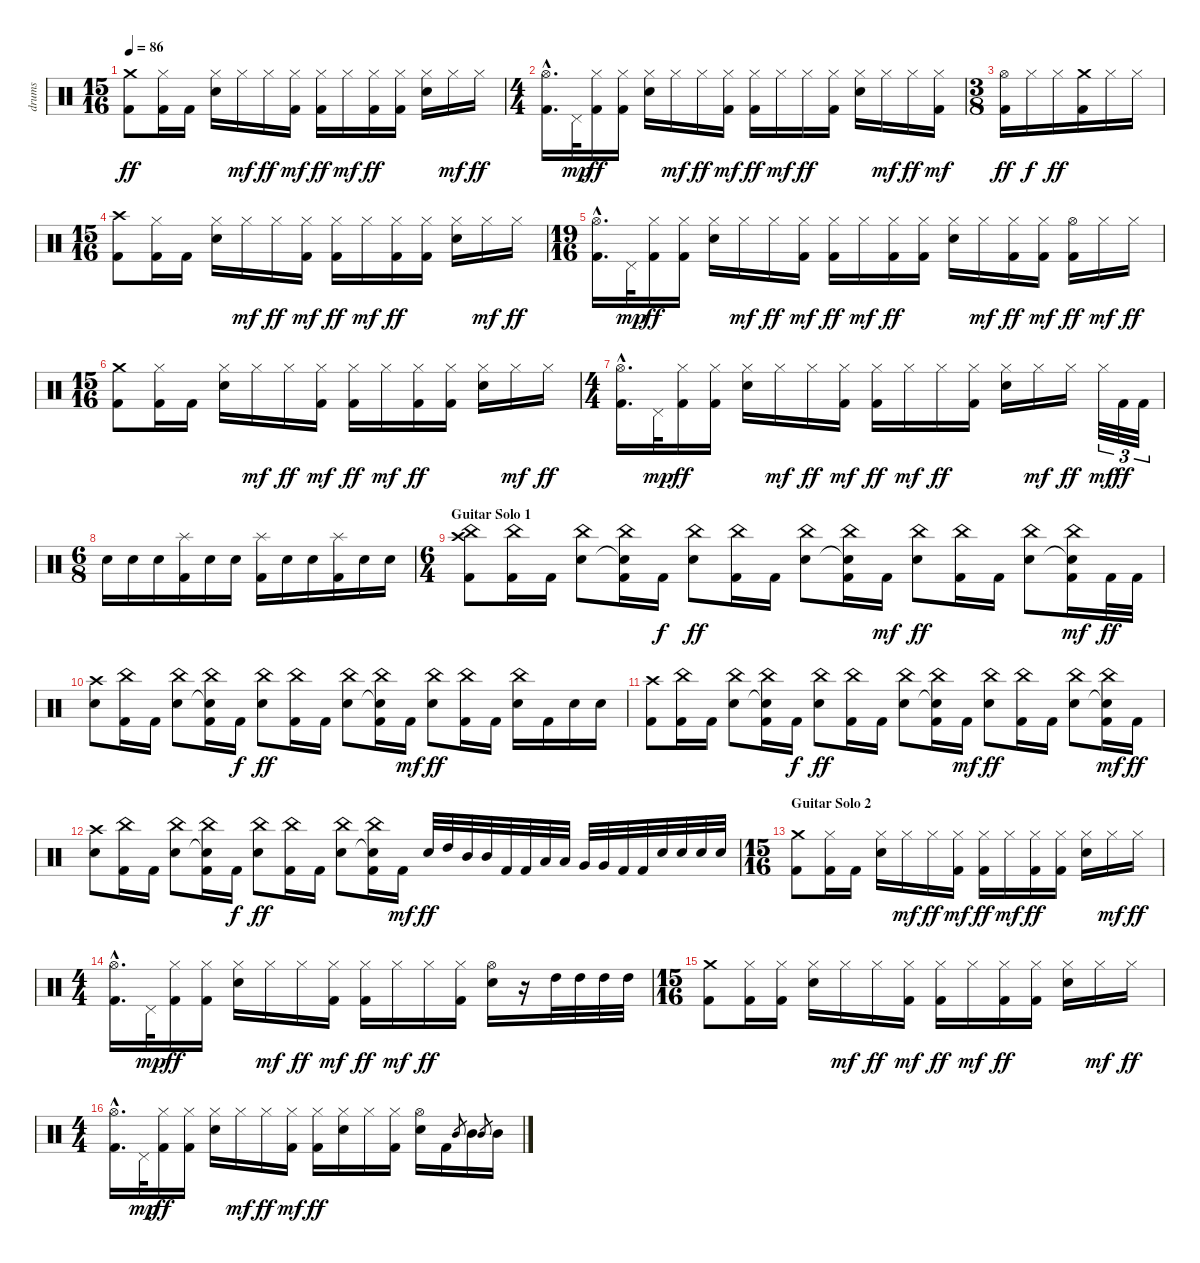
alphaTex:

\track ("drums" "drums") {instrument percussion}
\staff {score}
\articulation defaults
\ts (15 16)
\tempo 86
\clef neutral
\ks c
("Crash medium (hit)" "Kick (hit) 2").8{dy ff} ("Hi-Hat (closed)" "Kick (hit) 2").16 "Kick (hit) 2".16 ("Hi-Hat (closed)" "Snare (hit) 2").16 "Hi-Hat (closed)".16{dy mf} "Hi-Hat (closed)".16{dy ff} ("Hi-Hat (closed)" "Kick (hit) 2").16{dy mf} ("Hi-Hat (closed)" "Kick (hit) 2").16{dy ff} "Hi-Hat (closed)".16{dy mf} ("Hi-Hat (closed)" "Kick (hit) 2").16{dy ff} ("Hi-Hat (closed)" "Kick (hit) 2").16 ("Hi-Hat (closed)" "Snare (hit) 2").16 "Hi-Hat (closed)".16{dy mf} "Hi-Hat (closed)".16{dy ff} |
\ts (4 4)
("Hi-Hat (open)"{hac} "Kick (hit) 2"{hac}).16{d} "Pedal Hi-Hat (hit)".32{dy mp} ("Hi-Hat (closed)" "Kick (hit) 2").16{dy ff} ("Hi-Hat (closed)" "Kick (hit) 2").16 ("Hi-Hat (closed)" "Snare (hit) 2").16 "Hi-Hat (closed)".16{dy mf} "Hi-Hat (closed)".16{dy ff} ("Hi-Hat (closed)" "Kick (hit) 2").16{dy mf} ("Hi-Hat (closed)" "Kick (hit) 2").16{dy ff} "Hi-Hat (closed)".16{dy mf} "Hi-Hat (closed)".16{dy ff} ("Hi-Hat (closed)" "Kick (hit) 2").16 ("Hi-Hat (closed)" "Snare (hit) 2").16 "Hi-Hat (closed)".16{dy mf} "Hi-Hat (closed)".16{dy ff} ("Hi-Hat (closed)" "Kick (hit) 2").16{dy mf} |
\ts (3 8)
("Hi-Hat (open)" "Kick (hit) 2").16{dy ff} "Hi-Hat (closed)".16{dy f} "Hi-Hat (closed)".16{dy ff} ("Crash medium (hit)" "Kick (hit) 2").16 "Hi-Hat (closed)".16 "Hi-Hat (closed)".16 |
\ts (15 16)
("Crash high (hit)" "Kick (hit) 2").8 ("Hi-Hat (closed)" "Kick (hit) 2").16 "Kick (hit) 2".16 ("Hi-Hat (closed)" "Snare (hit) 2").16 "Hi-Hat (closed)".16{dy mf} "Hi-Hat (closed)".16{dy ff} ("Hi-Hat (closed)" "Kick (hit) 2").16{dy mf} ("Hi-Hat (closed)" "Kick (hit) 2").16{dy ff} "Hi-Hat (closed)".16{dy mf} ("Hi-Hat (closed)" "Kick (hit) 2").16{dy ff} ("Hi-Hat (closed)" "Kick (hit) 2").16 ("Hi-Hat (closed)" "Snare (hit) 2").16 "Hi-Hat (closed)".16{dy mf} "Hi-Hat (closed)".16{dy ff} |
\ts (19 16)
("Hi-Hat (open)"{hac} "Kick (hit) 2"{hac}).16{d} "Pedal Hi-Hat (hit)".32{dy mp} ("Hi-Hat (closed)" "Kick (hit) 2").16{dy ff} ("Hi-Hat (closed)" "Kick (hit) 2").16 ("Hi-Hat (closed)" "Snare (hit) 2").16 "Hi-Hat (closed)".16{dy mf} "Hi-Hat (closed)".16{dy ff} ("Hi-Hat (closed)" "Kick (hit) 2").16{dy mf} ("Hi-Hat (closed)" "Kick (hit) 2").16{dy ff} "Hi-Hat (closed)".16{dy mf} ("Hi-Hat (closed)" "Kick (hit) 2").16{dy ff} ("Hi-Hat (closed)" "Kick (hit) 2").16 ("Hi-Hat (closed)" "Snare (hit) 2").16 "Hi-Hat (closed)".16{dy mf} ("Hi-Hat (closed)" "Kick (hit) 2").16{dy ff} ("Hi-Hat (closed)" "Kick (hit) 2").16{dy mf} ("Hi-Hat (open)" "Kick (hit) 2").16{dy ff} "Hi-Hat (closed)".16{dy mf} "Hi-Hat (closed)".16{dy ff} |
\ts (15 16)
("Crash medium (hit)" "Kick (hit) 2").8 ("Hi-Hat (closed)" "Kick (hit) 2").16 "Kick (hit) 2".16 ("Hi-Hat (closed)" "Snare (hit) 2").16 "Hi-Hat (closed)".16{dy mf} "Hi-Hat (closed)".16{dy ff} ("Hi-Hat (closed)" "Kick (hit) 2").16{dy mf} ("Hi-Hat (closed)" "Kick (hit) 2").16{dy ff} "Hi-Hat (closed)".16{dy mf} ("Hi-Hat (closed)" "Kick (hit) 2").16{dy ff} ("Hi-Hat (closed)" "Kick (hit) 2").16 ("Hi-Hat (closed)" "Snare (hit) 2").16 "Hi-Hat (closed)".16{dy mf} "Hi-Hat (closed)".16{dy ff} |
\ts (4 4)
("Hi-Hat (open)"{hac} "Kick (hit) 2"{hac}).16{d} "Pedal Hi-Hat (hit)".32{dy mp} ("Hi-Hat (closed)" "Kick (hit) 2").16{dy ff} ("Hi-Hat (closed)" "Kick (hit) 2").16 ("Hi-Hat (closed)" "Snare (hit) 2").16 "Hi-Hat (closed)".16{dy mf} "Hi-Hat (closed)".16{dy ff} ("Hi-Hat (closed)" "Kick (hit) 2").16{dy mf} ("Hi-Hat (closed)" "Kick (hit) 2").16{dy ff} "Hi-Hat (closed)".16{dy mf} "Hi-Hat (closed)".16{dy ff} ("Hi-Hat (closed)" "Kick (hit) 2").16 ("Hi-Hat (closed)" "Snare (hit) 2").16 "Hi-Hat (closed)".16{dy mf} "Hi-Hat (closed)".16{dy ff} "Hi-Hat (closed)".32{tu (3 2) dy mf} "Kick (hit) 2".32{tu (3 2) dy ff} "Kick (hit) 2".32{tu (3 2)} |
\ts (6 8)
"Snare (hit) 2".16 "Snare (hit) 2".16 "Snare (hit) 2".16 ("Splash (hit)" "Kick (hit) 2").16 "Snare (hit) 2".16 "Snare (hit) 2".16 ("Splash (hit)" "Kick (hit) 2").16 "Snare (hit) 2".16 "Snare (hit) 2".16 ("Splash (hit)" "Kick (hit) 2").16 "Snare (hit) 2".16 "Snare (hit) 2".16 |
\ts (6 4)
\section ("" "Guitar Solo 1")
("China (hit)" "Crash high (hit)" "Kick (hit) 2").8 ("China (hit)" "Kick (hit) 2").16 "Kick (hit) 2".16 ("China (hit)" "Snare (hit) 2").8 ("China (hit)" "Snare (hit)"{t} "Kick (hit) 2").16 "Kick (hit) 2".16{dy f} ("China (hit)" "Snare (hit) 2").8{dy ff} ("China (hit)" "Kick (hit) 2").16 "Kick (hit) 2".16 ("China (hit)" "Snare (hit) 2").8 ("China (hit)" "Snare (hit)"{t} "Kick (hit) 2").16 "Kick (hit) 2".16{dy mf} ("China (hit)" "Snare (hit) 2").8{dy ff} ("China (hit)" "Kick (hit) 2").16 "Kick (hit) 2".16 ("China (hit)" "Snare (hit) 2").8 ("China (hit)" "Snare (hit)"{t} "Kick (hit) 2").16{dy mf} "Kick (hit) 2".32{dy ff} "Kick (hit) 2".32 |
("Crash high (hit)" "Snare (hit) 2").8 ("China (hit)" "Kick (hit) 2").16 "Kick (hit) 2".16 ("China (hit)" "Snare (hit) 2").8 ("China (hit)" "Snare (hit)"{t} "Kick (hit) 2").16 "Kick (hit) 2".16{dy f} ("China (hit)" "Snare (hit) 2").8{dy ff} ("China (hit)" "Kick (hit) 2").16 "Kick (hit) 2".16 ("China (hit)" "Snare (hit) 2").8 ("China (hit)" "Snare (hit)"{t} "Kick (hit) 2").16 "Kick (hit) 2".16{dy mf} ("China (hit)" "Snare (hit) 2").8{dy ff} ("China (hit)" "Kick (hit) 2").16 "Kick (hit) 2".16 ("China (hit)" "Snare (hit) 2").16 "Kick (hit) 2".16 "Snare (hit) 2".16 "Snare (hit) 2".16 |
("Crash high (hit)" "Kick (hit) 2").8 ("China (hit)" "Kick (hit) 2").16 "Kick (hit) 2".16 ("China (hit)" "Snare (hit) 2").8 ("China (hit)" "Snare (hit)"{t} "Kick (hit) 2").16 "Kick (hit) 2".16{dy f} ("China (hit)" "Snare (hit) 2").8{dy ff} ("China (hit)" "Kick (hit) 2").16 "Kick (hit) 2".16 ("China (hit)" "Snare (hit) 2").8 ("China (hit)" "Snare (hit)"{t} "Kick (hit) 2").16 "Kick (hit) 2".16{dy mf} ("China (hit)" "Snare (hit) 2").8{dy ff} ("China (hit)" "Kick (hit) 2").16 "Kick (hit) 2".16 ("China (hit)" "Snare (hit) 2").8 ("China (hit)" "Snare (hit)"{t} "Kick (hit) 2").16{dy mf} "Kick (hit) 2".16{dy ff} |
("Crash high (hit)" "Snare (hit) 2").8 ("China (hit)" "Kick (hit) 2").16 "Kick (hit) 2".16 ("China (hit)" "Snare (hit) 2").8 ("China (hit)" "Snare (hit)"{t} "Kick (hit) 2").16 "Kick (hit) 2".16{dy f} ("China (hit)" "Snare (hit) 2").8{dy ff} ("China (hit)" "Kick (hit) 2").16 "Kick (hit) 2".16 ("China (hit)" "Snare (hit) 2").8 ("China (hit)" "Snare (hit)"{t} "Kick (hit) 2").16 "Kick (hit) 2".16{dy mf} "Snare (hit) 2".32{dy ff} "High Tom (hit)".32 "Mid Tom (hit)".32 "Mid Tom (hit)".32 "Kick (hit) 2".32 "Kick (hit) 2".32 "Low Tom (hit)".32 "Low Tom (hit)".32 "Very Low Tom (hit)".32 "Very Low Tom (hit)".32 "Kick (hit) 2".32 "Kick (hit) 2".32 "Snare (hit) 2".32 "Snare (hit) 2".32 "Snare (hit) 2".32 "Snare (hit) 2".32 |
\ts (15 16)
\section ("" "Guitar Solo 2")
("Crash medium (hit)" "Kick (hit) 2").8 ("Hi-Hat (closed)" "Kick (hit) 2").16 "Kick (hit) 2".16 ("Hi-Hat (closed)" "Snare (hit) 2").16 "Hi-Hat (closed)".16{dy mf} "Hi-Hat (closed)".16{dy ff} ("Hi-Hat (closed)" "Kick (hit) 2").16{dy mf} ("Hi-Hat (closed)" "Kick (hit) 2").16{dy ff} "Hi-Hat (closed)".16{dy mf} ("Hi-Hat (closed)" "Kick (hit) 2").16{dy ff} ("Hi-Hat (closed)" "Kick (hit) 2").16 ("Hi-Hat (closed)" "Snare (hit) 2").16 "Hi-Hat (closed)".16{dy mf} "Hi-Hat (closed)".16{dy ff} |
\ts (4 4)
("Hi-Hat (open)"{hac} "Kick (hit) 2"{hac}).16{d} "Pedal Hi-Hat (hit)".32{dy mp} ("Hi-Hat (closed)" "Kick (hit) 2").16{dy ff} ("Hi-Hat (closed)" "Kick (hit) 2").16 ("Hi-Hat (closed)" "Snare (hit) 2").16 "Hi-Hat (closed)".16{dy mf} "Hi-Hat (closed)".16{dy ff} ("Hi-Hat (closed)" "Kick (hit) 2").16{dy mf} ("Hi-Hat (closed)" "Kick (hit) 2").16{dy ff} "Hi-Hat (closed)".16{dy mf} "Hi-Hat (closed)".16{dy ff} ("Hi-Hat (closed)" "Kick (hit) 2").16 ("Hi-Hat (open)" "Snare (hit) 2").16 r.16 "High Tom (hit)".32 "High Tom (hit)".32 "High Tom (hit)".32 "High Tom (hit)".32 |
\ts (15 16)
("Crash medium (hit)" "Kick (hit) 2").8 ("Hi-Hat (closed)" "Kick (hit) 2").16 ("Hi-Hat (closed)" "Kick (hit) 2").16 ("Hi-Hat (closed)" "Snare (hit) 2").16 "Hi-Hat (closed)".16{dy mf} "Hi-Hat (closed)".16{dy ff} ("Hi-Hat (closed)" "Kick (hit) 2").16{dy mf} ("Hi-Hat (closed)" "Kick (hit) 2").16{dy ff} "Hi-Hat (closed)".16{dy mf} ("Hi-Hat (closed)" "Kick (hit) 2").16{dy ff} ("Hi-Hat (closed)" "Kick (hit) 2").16 ("Hi-Hat (closed)" "Snare (hit) 2").16 "Hi-Hat (closed)".16{dy mf} "Hi-Hat (closed)".16{dy ff} |
\ts (4 4)
("Hi-Hat (open)"{hac} "Kick (hit) 2"{hac}).16{d} "Pedal Hi-Hat (hit)".32{dy mp} ("Hi-Hat (closed)" "Kick (hit) 2").16{dy ff} ("Hi-Hat (closed)" "Kick (hit) 2").16 ("Hi-Hat (closed)" "Snare (hit) 2").16 "Hi-Hat (closed)".16{dy mf} "Hi-Hat (closed)".16{dy ff} ("Hi-Hat (closed)" "Kick (hit) 2").16{dy mf} ("Hi-Hat (closed)" "Kick (hit) 2").16{dy ff} ("Hi-Hat (closed)" "Snare (hit) 2").16 "Hi-Hat (closed)".16 ("Hi-Hat (closed)" "Kick (hit) 2").16 ("Hi-Hat (open)" "Snare (hit) 2").16 "Kick (hit) 2".16 "Mid Tom (hit)".8{gr} "Mid Tom (hit)".16 "Mid Tom (hit)".8{gr} "Mid Tom (hit)".16
